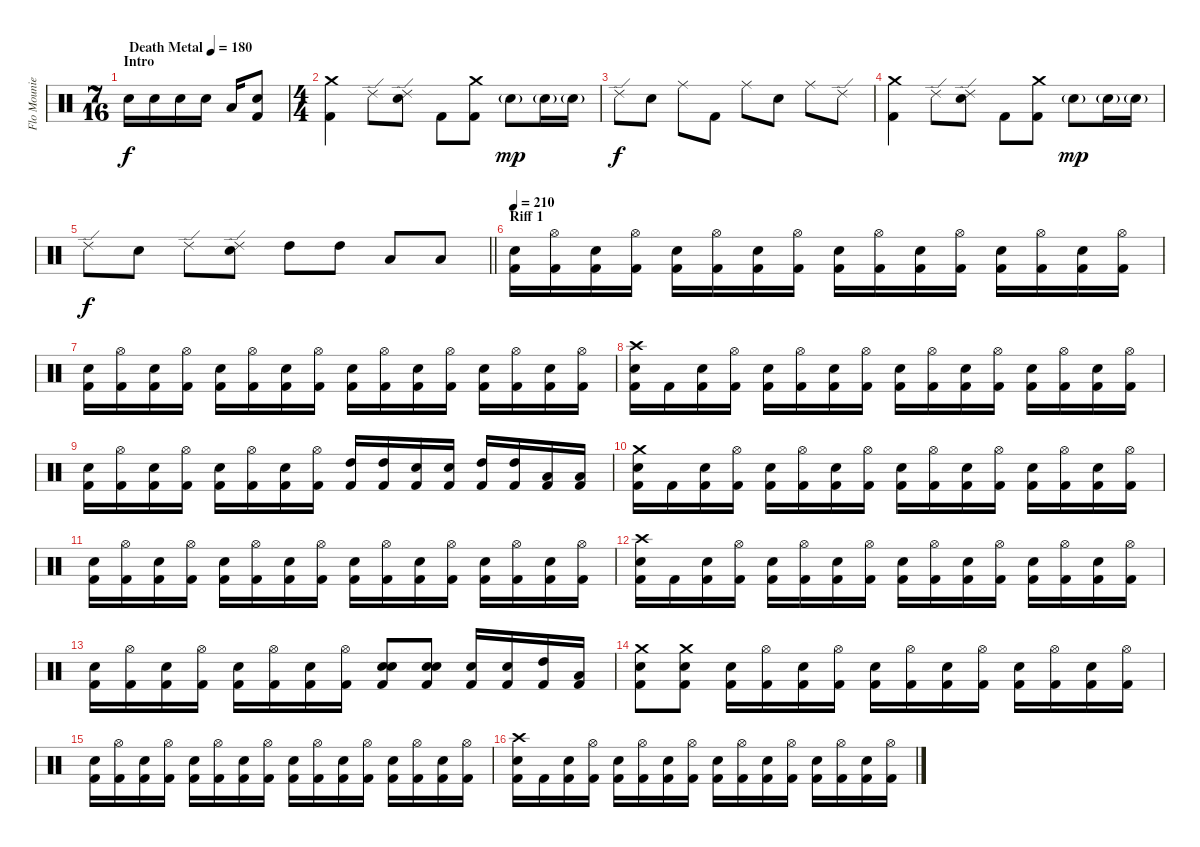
\track ("Flo Mounier" "Flo Mounie") {instrument percussion}
\staff {score}
\articulation defaults
\ts (7 16)
\section ("" "Intro")
\tempo (180 "Death Metal")
\clef neutral
\ks c "Snare (hit) 2".16{dy f} "Snare (hit) 2".16 "Snare (hit) 2".16 "Snare (hit) 2".16 "Low Tom (hit)".16
("Snare (hit) 2" "Kick (hit) 2").8 |
\ts (4 4)
("Crash medium (hit)" "Kick (hit) 2").4 "Ride (edge) 2".8 ("Ride (edge) 2" "Snare (hit) 2").8 "Kick (hit) 2".8 ("Crash medium (hit)" "Kick (hit) 2").8 "Snare (hit) 2"{g}.8{dy mp} "Snare (hit) 2"{g}.16 "Snare (hit) 2"{g}.16 |
"Ride (edge) 2".8{dy f} "Snare (hit) 2".8 "Ride (middle)".8 "Kick (hit) 2".8 "Ride (middle)".8 "Snare (hit) 2".8 "Ride (middle)".8 "Ride (edge) 2".8 |
("Crash medium (hit)" "Kick (hit) 2").4 "Ride (edge) 2".8 ("Ride (edge) 2" "Snare (hit) 2").8 "Kick (hit) 2".8 ("Crash medium (hit)" "Kick (hit) 2").8 "Snare (hit) 2"{g}.8{dy mp} "Snare (hit) 2"{g}.16 "Snare (hit) 2"{g}.16 |
\barLineRight lightlight "Ride (edge) 2".8{dy f} "Snare (hit) 2".8 "Ride (edge) 2".8
("Ride (edge) 2" "Snare (hit) 2").8 "High Tom (hit)".8 "High Tom (hit)".8 "Low Tom (hit)".8 "Low Tom (hit)".8 |
\section ("" "Riff 1")
\tempo 210
("Snare (hit) 2" "Kick (hit) 2").16 ("Hi-Hat (open)" "Kick (hit) 2").16 ("Snare (hit) 2" "Kick (hit) 2").16 ("Hi-Hat (open)" "Kick (hit) 2").16 ("Snare (hit) 2" "Kick (hit) 2").16 ("Hi-Hat (open)" "Kick (hit) 2").16 ("Snare (hit) 2" "Kick (hit) 2").16 ("Hi-Hat (open)" "Kick (hit) 2").16 ("Snare (hit) 2" "Kick (hit) 2").16 ("Hi-Hat (open)" "Kick (hit) 2").16 ("Snare (hit) 2" "Kick (hit) 2").16 ("Hi-Hat (open)" "Kick (hit) 2").16 ("Snare (hit) 2" "Kick (hit) 2").16 ("Hi-Hat (open)" "Kick (hit) 2").16 ("Snare (hit) 2" "Kick (hit) 2").16 ("Hi-Hat (open)" "Kick (hit) 2").16 |
("Snare (hit) 2" "Kick (hit) 2").16 ("Hi-Hat (open)" "Kick (hit) 2").16 ("Snare (hit) 2" "Kick (hit) 2").16 ("Hi-Hat (open)" "Kick (hit) 2").16 ("Snare (hit) 2" "Kick (hit) 2").16 ("Hi-Hat (open)" "Kick (hit) 2").16 ("Snare (hit) 2" "Kick (hit) 2").16 ("Hi-Hat (open)" "Kick (hit) 2").16 ("Snare (hit) 2" "Kick (hit) 2").16 ("Hi-Hat (open)" "Kick (hit) 2").16 ("Snare (hit) 2" "Kick (hit) 2").16 ("Hi-Hat (open)" "Kick (hit) 2").16 ("Snare (hit) 2" "Kick (hit) 2").16 ("Hi-Hat (open)" "Kick (hit) 2").16 ("Snare (hit) 2" "Kick (hit) 2").16 ("Hi-Hat (open)" "Kick (hit) 2").16 |
("Crash high (hit)" "Snare (hit) 2" "Kick (hit) 2").16 "Kick (hit) 2".16 ("Snare (hit) 2" "Kick (hit) 2").16 ("Hi-Hat (open)" "Kick (hit) 2").16 ("Snare (hit) 2" "Kick (hit) 2").16 ("Hi-Hat (open)" "Kick (hit) 2").16 ("Snare (hit) 2" "Kick (hit) 2").16 ("Hi-Hat (open)" "Kick (hit) 2").16 ("Snare (hit) 2" "Kick (hit) 2").16 ("Hi-Hat (open)" "Kick (hit) 2").16 ("Snare (hit) 2" "Kick (hit) 2").16 ("Hi-Hat (open)" "Kick (hit) 2").16 ("Snare (hit) 2" "Kick (hit) 2").16 ("Hi-Hat (open)" "Kick (hit) 2").16 ("Snare (hit) 2" "Kick (hit) 2").16 ("Hi-Hat (open)" "Kick (hit) 2").16 |
("Snare (hit) 2" "Kick (hit) 2").16 ("Hi-Hat (open)" "Kick (hit) 2").16 ("Snare (hit) 2" "Kick (hit) 2").16 ("Hi-Hat (open)" "Kick (hit) 2").16 ("Snare (hit) 2" "Kick (hit) 2").16 ("Hi-Hat (open)" "Kick (hit) 2").16 ("Snare (hit) 2" "Kick (hit) 2").16 ("Hi-Hat (open)" "Kick (hit) 2").16 ("High Tom (hit)" "Kick (hit) 2").16 ("High Tom (hit)" "Kick (hit) 2").16 ("Snare (hit) 2" "Kick (hit) 2").16 ("Snare (hit) 2" "Kick (hit) 2").16 ("High Tom (hit)" "Kick (hit) 2").16 ("High Tom (hit)" "Kick (hit) 2").16 ("Low Tom (hit)" "Kick (hit) 2").16 ("Low Tom (hit)" "Kick (hit) 2").16 |
("Crash medium (hit)" "Snare (hit) 2" "Kick (hit) 2").16 "Kick (hit) 2".16 ("Snare (hit) 2" "Kick (hit) 2").16 ("Hi-Hat (open)" "Kick (hit) 2").16 ("Snare (hit) 2" "Kick (hit) 2").16 ("Hi-Hat (open)" "Kick (hit) 2").16 ("Snare (hit) 2" "Kick (hit) 2").16 ("Hi-Hat (open)" "Kick (hit) 2").16 ("Snare (hit) 2" "Kick (hit) 2").16 ("Hi-Hat (open)" "Kick (hit) 2").16 ("Snare (hit) 2" "Kick (hit) 2").16 ("Hi-Hat (open)" "Kick (hit) 2").16 ("Snare (hit) 2" "Kick (hit) 2").16 ("Hi-Hat (open)" "Kick (hit) 2").16 ("Snare (hit) 2" "Kick (hit) 2").16 ("Hi-Hat (open)" "Kick (hit) 2").16 |
("Snare (hit) 2" "Kick (hit) 2").16 ("Hi-Hat (open)" "Kick (hit) 2").16 ("Snare (hit) 2" "Kick (hit) 2").16 ("Hi-Hat (open)" "Kick (hit) 2").16 ("Snare (hit) 2" "Kick (hit) 2").16 ("Hi-Hat (open)" "Kick (hit) 2").16 ("Snare (hit) 2" "Kick (hit) 2").16 ("Hi-Hat (open)" "Kick (hit) 2").16 ("Snare (hit) 2" "Kick (hit) 2").16 ("Hi-Hat (open)" "Kick (hit) 2").16 ("Snare (hit) 2" "Kick (hit) 2").16 ("Hi-Hat (open)" "Kick (hit) 2").16 ("Snare (hit) 2" "Kick (hit) 2").16 ("Hi-Hat (open)" "Kick (hit) 2").16 ("Snare (hit) 2" "Kick (hit) 2").16 ("Hi-Hat (open)" "Kick (hit) 2").16 |
("Crash high (hit)" "Snare (hit) 2" "Kick (hit) 2").16 "Kick (hit) 2".16 ("Snare (hit) 2" "Kick (hit) 2").16 ("Hi-Hat (open)" "Kick (hit) 2").16 ("Snare (hit) 2" "Kick (hit) 2").16 ("Hi-Hat (open)" "Kick (hit) 2").16 ("Snare (hit) 2" "Kick (hit) 2").16 ("Hi-Hat (open)" "Kick (hit) 2").16 ("Snare (hit) 2" "Kick (hit) 2").16 ("Hi-Hat (open)" "Kick (hit) 2").16 ("Snare (hit) 2" "Kick (hit) 2").16 ("Hi-Hat (open)" "Kick (hit) 2").16 ("Snare (hit) 2" "Kick (hit) 2").16 ("Hi-Hat (open)" "Kick (hit) 2").16 ("Snare (hit) 2" "Kick (hit) 2").16 ("Hi-Hat (open)" "Kick (hit) 2").16 |
("Snare (hit) 2" "Kick (hit) 2").16 ("Hi-Hat (open)" "Kick (hit) 2").16 ("Snare (hit) 2" "Kick (hit) 2").16 ("Hi-Hat (open)" "Kick (hit) 2").16 ("Snare (hit) 2" "Kick (hit) 2").16 ("Hi-Hat (open)" "Kick (hit) 2").16 ("Snare (hit) 2" "Kick (hit) 2").16 ("Hi-Hat (open)" "Kick (hit) 2").16 ("Snare (hit) 2" "Snare (hit) 2" "Kick (hit) 2").8 ("Snare (hit) 2" "Snare (hit) 2" "Kick (hit) 2").8 ("Snare (hit) 2" "Kick (hit) 2").16 ("Snare (hit) 2" "Kick (hit) 2").16 ("High Tom (hit)" "Kick (hit) 2").16 ("Low Tom (hit)" "Kick (hit) 2").16 |
("Crash medium (hit)" "Snare (hit) 2" "Kick (hit) 2").8 ("Crash medium (hit)" "Snare (hit) 2" "Kick (hit) 2").8 ("Snare (hit) 2" "Kick (hit) 2").16 ("Hi-Hat (open)" "Kick (hit) 2").16 ("Snare (hit) 2" "Kick (hit) 2").16 ("Hi-Hat (open)" "Kick (hit) 2").16 ("Snare (hit) 2" "Kick (hit) 2").16 ("Hi-Hat (open)" "Kick (hit) 2").16 ("Snare (hit) 2" "Kick (hit) 2").16 ("Hi-Hat (open)" "Kick (hit) 2").16 ("Snare (hit) 2" "Kick (hit) 2").16 ("Hi-Hat (open)" "Kick (hit) 2").16 ("Snare (hit) 2" "Kick (hit) 2").16 ("Hi-Hat (open)" "Kick (hit) 2").16 |
("Snare (hit) 2" "Kick (hit) 2").16 ("Hi-Hat (open)" "Kick (hit) 2").16 ("Snare (hit) 2" "Kick (hit) 2").16 ("Hi-Hat (open)" "Kick (hit) 2").16 ("Snare (hit) 2" "Kick (hit) 2").16 ("Hi-Hat (open)" "Kick (hit) 2").16 ("Snare (hit) 2" "Kick (hit) 2").16 ("Hi-Hat (open)" "Kick (hit) 2").16 ("Snare (hit) 2" "Kick (hit) 2").16 ("Hi-Hat (open)" "Kick (hit) 2").16 ("Snare (hit) 2" "Kick (hit) 2").16 ("Hi-Hat (open)" "Kick (hit) 2").16 ("Snare (hit) 2" "Kick (hit) 2").16 ("Hi-Hat (open)" "Kick (hit) 2").16 ("Snare (hit) 2" "Kick (hit) 2").16 ("Hi-Hat (open)" "Kick (hit) 2").16 |
("Crash high (hit)" "Snare (hit) 2" "Kick (hit) 2").16 "Kick (hit) 2".16 ("Snare (hit) 2" "Kick (hit) 2").16 ("Hi-Hat (open)" "Kick (hit) 2").16 ("Snare (hit) 2" "Kick (hit) 2").16 ("Hi-Hat (open)" "Kick (hit) 2").16 ("Snare (hit) 2" "Kick (hit) 2").16 ("Hi-Hat (open)" "Kick (hit) 2").16 ("Snare (hit) 2" "Kick (hit) 2").16 ("Hi-Hat (open)" "Kick (hit) 2").16 ("Snare (hit) 2" "Kick (hit) 2").16 ("Hi-Hat (open)" "Kick (hit) 2").16 ("Snare (hit) 2" "Kick (hit) 2").16 ("Hi-Hat (open)" "Kick (hit) 2").16 ("Snare (hit) 2" "Kick (hit) 2").16 ("Hi-Hat (open)" "Kick (hit) 2").16
